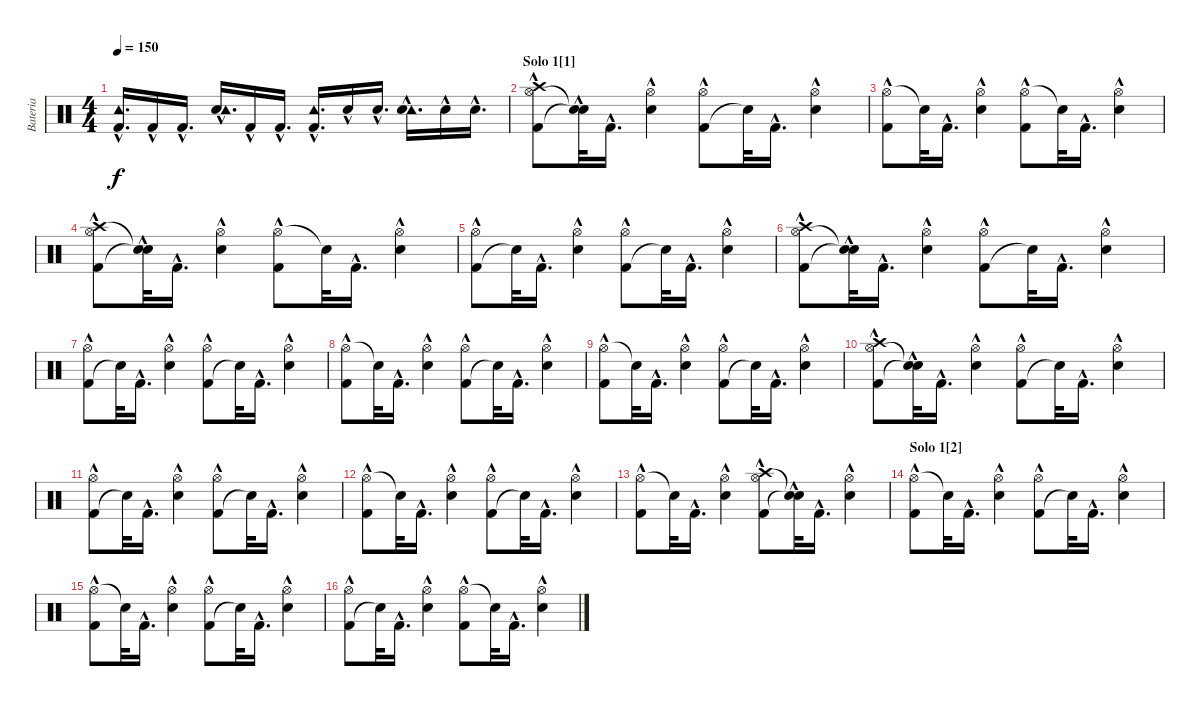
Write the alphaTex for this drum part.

\track ("Bateria" "Bateria") {instrument percussion}
\staff {score}
\articulation defaults
\ts (4 4)
\tempo 150
\clef neutral
\ks c
("Kick (hit) 2"{hac} "Tambourine (hit)").16{d dy f} "Kick (hit) 2"{hac}.16 "Kick (hit) 2"{hac}.16{d} ("Snare (hit) 2"{hac} "Tambourine (hit)").16{d} "Kick (hit) 2"{hac}.16 "Kick (hit) 2"{hac}.16{d} ("Kick (hit) 2"{hac} "Tambourine (hit)").16{d} "Snare (hit) 2"{hac}.16 "Snare (hit) 2"{hac}.16{d} ("Tambourine (hit)" "Snare (hit) 2"{hac}).16{d} "Snare (hit) 2"{hac}.16 "Snare (hit) 2"{hac}.16{d} |
\section ("" "Solo 1[1]")
("Hi-Hat (open)" "Kick (hit) 2"{hac} "Crash high (hit)").8 ("Snare (hit)"{t} "Snare (hit)"{hac t}).32 "Kick (hit) 2"{hac}.16{d} ("Snare (hit) 2"{hac} "Hi-Hat (open)").4 ("Kick (hit) 2"{hac} "Hi-Hat (open)").8 "Snare (hit)"{t}.32 "Kick (hit) 2"{hac}.16{d} ("Hi-Hat (open)" "Snare (hit) 2"{hac}).4 |
("Hi-Hat (open)" "Kick (hit) 2"{hac}).8 "Snare (hit)"{t}.32 "Kick (hit) 2"{hac}.16{d} ("Snare (hit) 2"{hac} "Hi-Hat (open)").4 ("Hi-Hat (open)" "Kick (hit) 2"{hac}).8 "Snare (hit)"{t}.32 "Kick (hit) 2"{hac}.16{d} ("Hi-Hat (open)" "Snare (hit) 2"{hac}).4 |
("Crash high (hit)" "Kick (hit) 2"{hac} "Hi-Hat (open)").8 ("Snare (hit)"{hac t} "Snare (hit)"{t}).32 "Kick (hit) 2"{hac}.16{d} ("Snare (hit) 2"{hac} "Hi-Hat (open)").4 ("Hi-Hat (open)" "Kick (hit) 2"{hac}).8 "Snare (hit)"{t}.32 "Kick (hit) 2"{hac}.16{d} ("Hi-Hat (open)" "Snare (hit) 2"{hac}).4 |
("Kick (hit) 2"{hac} "Hi-Hat (open)").8 "Snare (hit)"{t}.32 "Kick (hit) 2"{hac}.16{d} ("Snare (hit) 2"{hac} "Hi-Hat (open)").4 ("Kick (hit) 2"{hac} "Hi-Hat (open)").8 "Snare (hit)"{t}.32 "Kick (hit) 2"{hac}.16{d} ("Snare (hit) 2"{hac} "Hi-Hat (open)").4 |
("Kick (hit) 2"{hac} "Hi-Hat (open)" "Crash high (hit)").8 ("Snare (hit)"{t} "Snare (hit)"{hac t}).32 "Kick (hit) 2"{hac}.16{d} ("Hi-Hat (open)" "Snare (hit) 2"{hac}).4 ("Kick (hit) 2"{hac} "Hi-Hat (open)").8 "Snare (hit)"{t}.32 "Kick (hit) 2"{hac}.16{d} ("Snare (hit) 2"{hac} "Hi-Hat (open)").4 |
("Kick (hit) 2"{hac} "Hi-Hat (open)").8 "Snare (hit)"{t}.32 "Kick (hit) 2"{hac}.16{d} ("Hi-Hat (open)" "Snare (hit) 2"{hac}).4 ("Kick (hit) 2"{hac} "Hi-Hat (open)").8 "Snare (hit)"{t}.32 "Kick (hit) 2"{hac}.16{d} ("Hi-Hat (open)" "Snare (hit) 2"{hac}).4 |
("Hi-Hat (open)" "Kick (hit) 2"{hac}).8 "Snare (hit)"{t}.32 "Kick (hit) 2"{hac}.16{d} ("Snare (hit) 2"{hac} "Hi-Hat (open)").4 ("Kick (hit) 2"{hac} "Hi-Hat (open)").8 "Snare (hit)"{t}.32 "Kick (hit) 2"{hac}.16{d} ("Snare (hit) 2"{hac} "Hi-Hat (open)").4 |
("Hi-Hat (open)" "Kick (hit) 2"{hac}).8 "Snare (hit)"{t}.32 "Kick (hit) 2"{hac}.16{d} ("Hi-Hat (open)" "Snare (hit) 2"{hac}).4 ("Kick (hit) 2"{hac} "Hi-Hat (open)").8 "Snare (hit)"{t}.32 "Kick (hit) 2"{hac}.16{d} ("Hi-Hat (open)" "Snare (hit) 2"{hac}).4 |
("Hi-Hat (open)" "Kick (hit) 2"{hac} "Crash high (hit)").8 ("Snare (hit)"{t} "Snare (hit)"{hac t}).32 "Kick (hit) 2"{hac}.16{d} ("Snare (hit) 2"{hac} "Hi-Hat (open)").4 ("Kick (hit) 2"{hac} "Hi-Hat (open)").8 "Snare (hit)"{t}.32 "Kick (hit) 2"{hac}.16{d} ("Hi-Hat (open)" "Snare (hit) 2"{hac}).4 |
("Kick (hit) 2"{hac} "Hi-Hat (open)").8 "Snare (hit)"{t}.32 "Kick (hit) 2"{hac}.16{d} ("Snare (hit) 2"{hac} "Hi-Hat (open)").4 ("Kick (hit) 2"{hac} "Hi-Hat (open)").8 "Snare (hit)"{t}.32 "Kick (hit) 2"{hac}.16{d} ("Snare (hit) 2"{hac} "Hi-Hat (open)").4 |
("Hi-Hat (open)" "Kick (hit) 2"{hac}).8 "Snare (hit)"{t}.32 "Kick (hit) 2"{hac}.16{d} ("Snare (hit) 2"{hac} "Hi-Hat (open)").4 ("Kick (hit) 2"{hac} "Hi-Hat (open)").8 "Snare (hit)"{t}.32 "Kick (hit) 2"{hac}.16{d} ("Snare (hit) 2"{hac} "Hi-Hat (open)").4 |
("Hi-Hat (open)" "Kick (hit) 2"{hac}).8 "Snare (hit)"{t}.32 "Kick (hit) 2"{hac}.16{d} ("Hi-Hat (open)" "Snare (hit) 2"{hac}).4 ("Crash high (hit)" "Kick (hit) 2"{hac} "Hi-Hat (open)").8 ("Snare (hit)"{hac t} "Snare (hit)"{t}).32 "Kick (hit) 2"{hac}.16{d} ("Snare (hit) 2"{hac} "Hi-Hat (open)").4 |
\section ("" "Solo 1[2]")
("Hi-Hat (open)" "Kick (hit) 2"{hac}).8 "Snare (hit)"{t}.32 "Kick (hit) 2"{hac}.16{d} ("Hi-Hat (open)" "Snare (hit) 2"{hac}).4 ("Kick (hit) 2"{hac} "Hi-Hat (open)").8 "Snare (hit)"{t}.32 "Kick (hit) 2"{hac}.16{d} ("Snare (hit) 2"{hac} "Hi-Hat (open)").4 |
("Hi-Hat (open)" "Kick (hit) 2"{hac}).8 "Snare (hit)"{t}.32 "Kick (hit) 2"{hac}.16{d} ("Hi-Hat (open)" "Snare (hit) 2"{hac}).4 ("Kick (hit) 2"{hac} "Hi-Hat (open)").8 "Snare (hit)"{t}.32 "Kick (hit) 2"{hac}.16{d} ("Snare (hit) 2"{hac} "Hi-Hat (open)").4 |
("Kick (hit) 2"{hac} "Hi-Hat (open)").8 "Snare (hit)"{t}.32 "Kick (hit) 2"{hac}.16{d} ("Hi-Hat (open)" "Snare (hit) 2"{hac}).4 ("Hi-Hat (open)" "Kick (hit) 2"{hac}).8 "Snare (hit)"{t}.32 "Kick (hit) 2"{hac}.16{d} ("Hi-Hat (open)" "Snare (hit) 2"{hac}).4
